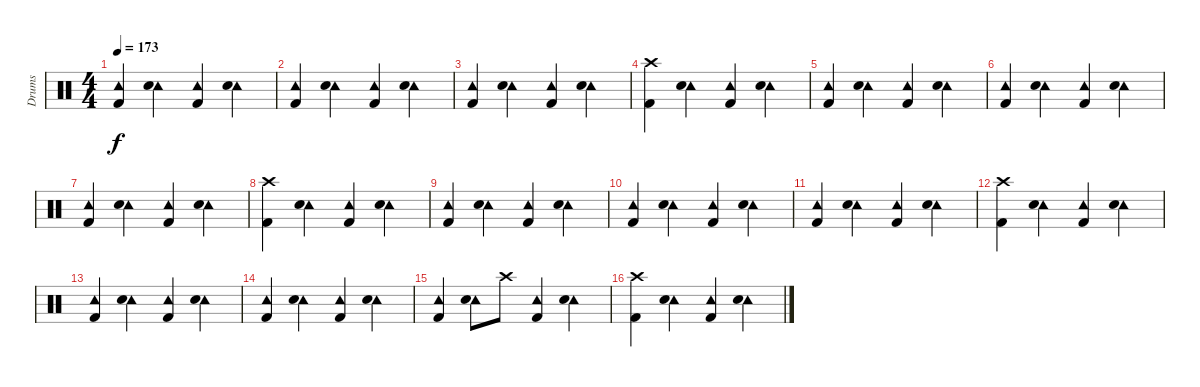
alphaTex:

\track ("Drums" "Drums") {instrument percussion}
\staff {score}
\articulation defaults
\ts (4 4)
\tempo 173
\clef neutral
\ks c
("Tambourine (hit)" "Kick (hit) 2").4{dy f} ("Tambourine (hit)" "Snare (hit) 2").4 ("Tambourine (hit)" "Kick (hit) 2").4 ("Tambourine (hit)" "Snare (hit) 2").4 |
("Tambourine (hit)" "Kick (hit) 2").4 ("Tambourine (hit)" "Snare (hit) 2").4 ("Tambourine (hit)" "Kick (hit) 2").4 ("Tambourine (hit)" "Snare (hit) 2").4 |
("Tambourine (hit)" "Kick (hit) 2").4 ("Tambourine (hit)" "Snare (hit) 2").4 ("Tambourine (hit)" "Kick (hit) 2").4 ("Tambourine (hit)" "Snare (hit) 2").4 |
("Crash high (hit)" "Kick (hit) 2").4 ("Tambourine (hit)" "Snare (hit) 2").4 ("Tambourine (hit)" "Kick (hit) 2").4 ("Tambourine (hit)" "Snare (hit) 2").4 |
("Tambourine (hit)" "Kick (hit) 2").4 ("Tambourine (hit)" "Snare (hit) 2").4 ("Tambourine (hit)" "Kick (hit) 2").4 ("Tambourine (hit)" "Snare (hit) 2").4 |
("Tambourine (hit)" "Kick (hit) 2").4 ("Tambourine (hit)" "Snare (hit) 2").4 ("Tambourine (hit)" "Kick (hit) 2").4 ("Tambourine (hit)" "Snare (hit) 2").4 |
("Tambourine (hit)" "Kick (hit) 2").4 ("Tambourine (hit)" "Snare (hit) 2").4 ("Tambourine (hit)" "Kick (hit) 2").4 ("Tambourine (hit)" "Snare (hit) 2").4 |
("Crash high (hit)" "Kick (hit) 2").4 ("Tambourine (hit)" "Snare (hit) 2").4 ("Tambourine (hit)" "Kick (hit) 2").4 ("Tambourine (hit)" "Snare (hit) 2").4 |
("Tambourine (hit)" "Kick (hit) 2").4 ("Tambourine (hit)" "Snare (hit) 2").4 ("Tambourine (hit)" "Kick (hit) 2").4 ("Tambourine (hit)" "Snare (hit) 2").4 |
("Tambourine (hit)" "Kick (hit) 2").4 ("Tambourine (hit)" "Snare (hit) 2").4 ("Tambourine (hit)" "Kick (hit) 2").4 ("Tambourine (hit)" "Snare (hit) 2").4 |
("Tambourine (hit)" "Kick (hit) 2").4 ("Tambourine (hit)" "Snare (hit) 2").4 ("Tambourine (hit)" "Kick (hit) 2").4 ("Tambourine (hit)" "Snare (hit) 2").4 |
("Crash high (hit)" "Kick (hit) 2").4 ("Tambourine (hit)" "Snare (hit) 2").4 ("Tambourine (hit)" "Kick (hit) 2").4 ("Tambourine (hit)" "Snare (hit) 2").4 |
("Tambourine (hit)" "Kick (hit) 2").4 ("Tambourine (hit)" "Snare (hit) 2").4 ("Tambourine (hit)" "Kick (hit) 2").4 ("Tambourine (hit)" "Snare (hit) 2").4 |
("Tambourine (hit)" "Kick (hit) 2").4 ("Tambourine (hit)" "Snare (hit) 2").4 ("Tambourine (hit)" "Kick (hit) 2").4 ("Tambourine (hit)" "Snare (hit) 2").4 |
("Tambourine (hit)" "Kick (hit) 2").4 ("Tambourine (hit)" "Snare (hit) 2").8 "Crash high (hit)".8 ("Tambourine (hit)" "Kick (hit) 2").4 ("Tambourine (hit)" "Snare (hit) 2").4 |
("Crash high (hit)" "Kick (hit) 2").4 ("Tambourine (hit)" "Snare (hit) 2").4 ("Tambourine (hit)" "Kick (hit) 2").4 ("Tambourine (hit)" "Snare (hit) 2").4
